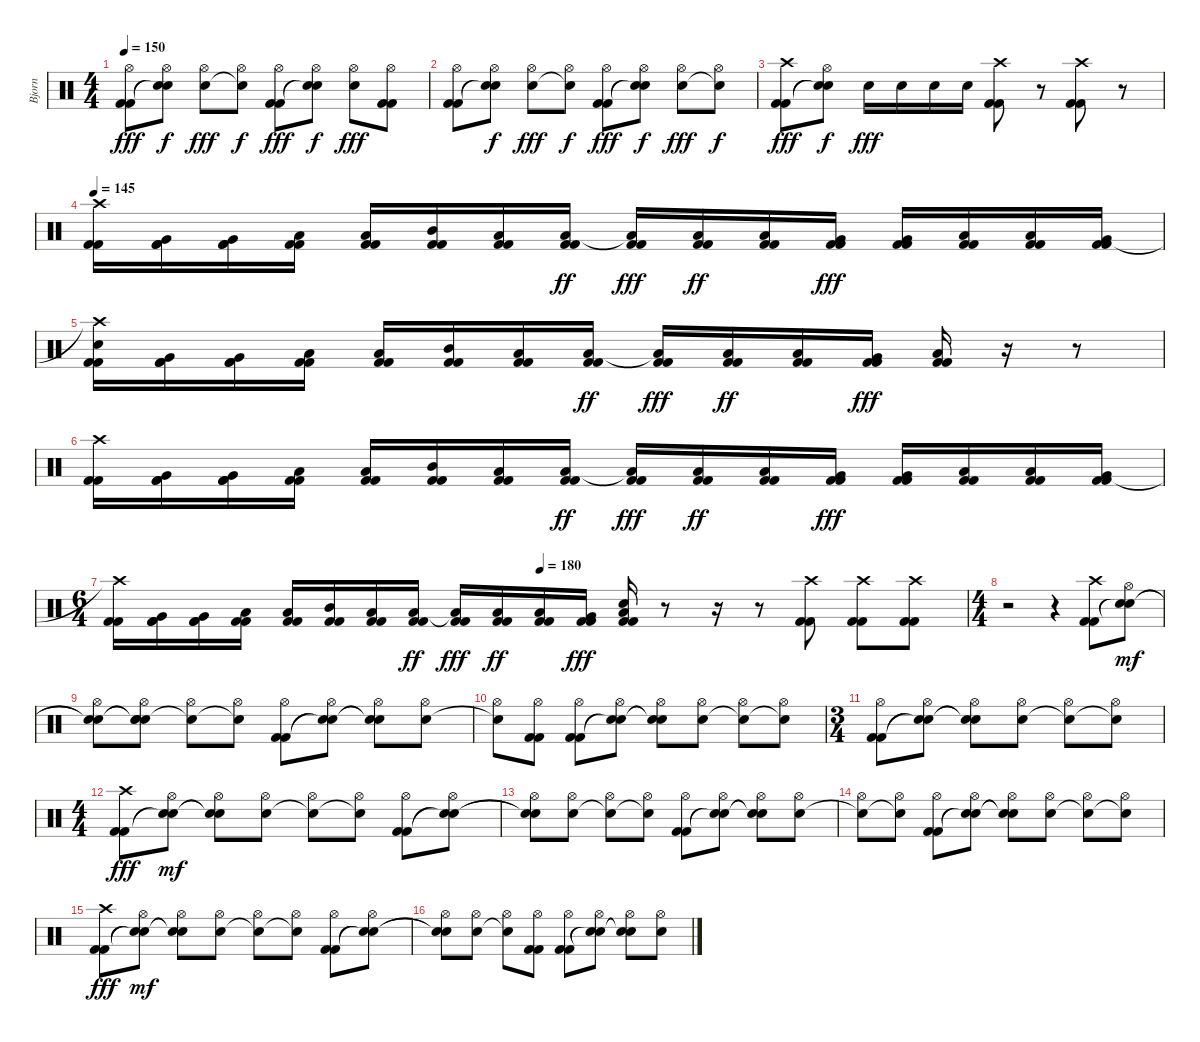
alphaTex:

\track ("Bjorn" "Bjorn") {instrument percussion}
\staff {score}
\articulation defaults
\ts (4 4)
\tempo 150
\clef neutral
\ks c
("Kick (hit) 2" "Kick (hit) 2" "Hi-Hat (open)").8{dy fff} ("Snare (hit)"{t} "Snare (hit)"{t} "Hi-Hat (open)").8{dy f} ("Snare (hit) 2" "Hi-Hat (open)").8{dy fff} ("Snare (hit)"{t} "Hi-Hat (open)").8{dy f} ("Kick (hit) 2" "Kick (hit) 2" "Hi-Hat (open)").8{dy fff} ("Snare (hit)"{t} "Snare (hit)"{t} "Hi-Hat (open)").8{dy f} ("Snare (hit) 2" "Hi-Hat (open)").8{dy fff} ("Kick (hit) 2" "Kick (hit) 2" "Hi-Hat (open)").8 |
("Kick (hit) 2" "Kick (hit) 2" "Hi-Hat (open)").8 ("Snare (hit)"{t} "Snare (hit)"{t} "Hi-Hat (open)").8{dy f} ("Snare (hit) 2" "Hi-Hat (open)").8{dy fff} ("Snare (hit)"{t} "Hi-Hat (open)").8{dy f} ("Kick (hit) 2" "Kick (hit) 2" "Hi-Hat (open)").8{dy fff} ("Snare (hit)"{t} "Snare (hit)"{t} "Hi-Hat (open)").8{dy f} ("Snare (hit) 2" "Hi-Hat (open)").8{dy fff} ("Snare (hit)"{t} "Hi-Hat (open)").8{dy f} |
("Kick (hit) 2" "Kick (hit) 2" "Crash high (hit)").8{dy fff} ("Snare (hit)"{t} "Snare (hit)"{t} "Hi-Hat (open)").8{dy f} "Snare (hit) 2".16{dy fff} "Snare (hit) 2".16 "Snare (hit) 2".16 "Snare (hit) 2".16 ("Kick (hit) 2" "Kick (hit) 2" "Crash high (hit)").8 r.8 ("Kick (hit) 2" "Kick (hit) 2" "Crash high (hit)").8 r.8 |
\tempo 145
("Kick (hit) 2" "Kick (hit) 2" "Crash high (hit)").16 ("Kick (hit) 2" "Kick (hit) 2" "Very Low Tom (hit)").16 ("Kick (hit) 2" "Kick (hit) 2" "Very Low Tom (hit)").16 ("Kick (hit) 2" "Kick (hit) 2" "Low Floor Tom (hit)").16 ("Kick (hit) 2" "Kick (hit) 2" "Low Floor Tom (hit)").16 ("Kick (hit) 2" "Kick (hit) 2" "Mid Tom (hit)").16 ("Kick (hit) 2" "Kick (hit) 2" "Low Tom (hit)").16 ("Kick (hit) 2" "Kick (hit) 2" "Low Floor Tom (hit)").16{dy ff} ("Kick (hit) 2" "Kick (hit) 2" "Low Tom (hit)"{t}).16{dy fff} ("Kick (hit) 2" "Kick (hit) 2" "Low Tom (hit)").16{dy ff} ("Kick (hit) 2" "Kick (hit) 2" "Low Tom (hit)").16 ("Kick (hit) 2" "Kick (hit) 2" "Very Low Tom (hit)").16{dy fff} ("Kick (hit) 2" "Kick (hit) 2" "Very Low Tom (hit)").16 ("Kick (hit) 2" "Kick (hit) 2" "Low Tom (hit)").16 ("Kick (hit) 2" "Kick (hit) 2" "Low Tom (hit)").16 ("Kick (hit) 2" "Kick (hit) 2" "Very Low Tom (hit)").16 |
("Kick (hit) 2" "Kick (hit) 2" "Crash high (hit)"{t} "Snare (hit)").16 ("Kick (hit) 2" "Kick (hit) 2" "Very Low Tom (hit)").16 ("Kick (hit) 2" "Kick (hit) 2" "Very Low Tom (hit)").16 ("Kick (hit) 2" "Kick (hit) 2" "Low Floor Tom (hit)").16 ("Kick (hit) 2" "Kick (hit) 2" "Low Floor Tom (hit)").16 ("Kick (hit) 2" "Kick (hit) 2" "Mid Tom (hit)").16 ("Kick (hit) 2" "Kick (hit) 2" "Low Tom (hit)").16 ("Kick (hit) 2" "Kick (hit) 2" "Low Floor Tom (hit)").16{dy ff} ("Kick (hit) 2" "Kick (hit) 2" "Low Tom (hit)"{t}).16{dy fff} ("Kick (hit) 2" "Kick (hit) 2" "Low Tom (hit)").16{dy ff} ("Kick (hit) 2" "Kick (hit) 2" "Low Tom (hit)").16 ("Kick (hit) 2" "Kick (hit) 2" "Very Low Tom (hit)").16{dy fff} ("Kick (hit) 2" "Kick (hit) 2" "Low Floor Tom (hit)").16 r.16 r.8 |
("Kick (hit) 2" "Kick (hit) 2" "Crash high (hit)").16 ("Kick (hit) 2" "Kick (hit) 2" "Very Low Tom (hit)").16 ("Kick (hit) 2" "Kick (hit) 2" "Very Low Tom (hit)").16 ("Kick (hit) 2" "Kick (hit) 2" "Low Floor Tom (hit)").16 ("Kick (hit) 2" "Kick (hit) 2" "Low Floor Tom (hit)").16 ("Kick (hit) 2" "Kick (hit) 2" "Mid Tom (hit)").16 ("Kick (hit) 2" "Kick (hit) 2" "Low Tom (hit)").16 ("Kick (hit) 2" "Kick (hit) 2" "Low Floor Tom (hit)").16{dy ff} ("Kick (hit) 2" "Kick (hit) 2" "Low Tom (hit)"{t}).16{dy fff} ("Kick (hit) 2" "Kick (hit) 2" "Low Tom (hit)").16{dy ff} ("Kick (hit) 2" "Kick (hit) 2" "Low Tom (hit)").16 ("Kick (hit) 2" "Kick (hit) 2" "Very Low Tom (hit)").16{dy fff} ("Kick (hit) 2" "Kick (hit) 2" "Very Low Tom (hit)").16 ("Kick (hit) 2" "Kick (hit) 2" "Low Tom (hit)").16 ("Kick (hit) 2" "Kick (hit) 2" "Low Tom (hit)").16 ("Kick (hit) 2" "Kick (hit) 2" "Very Low Tom (hit)").16 |
\ts (6 4)
\tempo (180 0.5)
("Kick (hit) 2" "Kick (hit) 2" "Crash high (hit)"{t}).16 ("Kick (hit) 2" "Kick (hit) 2" "Very Low Tom (hit)").16 ("Kick (hit) 2" "Kick (hit) 2" "Very Low Tom (hit)").16 ("Kick (hit) 2" "Kick (hit) 2" "Low Floor Tom (hit)").16 ("Kick (hit) 2" "Kick (hit) 2" "Low Floor Tom (hit)").16 ("Kick (hit) 2" "Kick (hit) 2" "Mid Tom (hit)").16 ("Kick (hit) 2" "Kick (hit) 2" "Low Tom (hit)").16 ("Kick (hit) 2" "Kick (hit) 2" "Low Floor Tom (hit)").16{dy ff} ("Kick (hit) 2" "Kick (hit) 2" "Low Tom (hit)"{t}).16{dy fff} ("Kick (hit) 2" "Kick (hit) 2" "Low Tom (hit)").16{dy ff} ("Kick (hit) 2" "Kick (hit) 2" "Low Tom (hit)").16 ("Kick (hit) 2" "Kick (hit) 2" "Very Low Tom (hit)").16{dy fff} ("Kick (hit) 2" "Kick (hit) 2" "Snare (hit) 2" "Low Floor Tom (hit)").16 r.8 r.16 r.8 ("Kick (hit) 2" "Kick (hit) 2" "Crash high (hit)").8 ("Kick (hit) 2" "Kick (hit) 2" "Crash high (hit)").8 ("Kick (hit) 2" "Kick (hit) 2" "Crash high (hit)").8 |
\ts (4 4)
r.2 r.4 ("Kick (hit) 2" "Kick (hit) 2" "Crash high (hit)").8 ("Snare (hit)"{t} "Snare (hit)"{t} "Hi-Hat (open)").8{dy mf} |
("Snare (hit)"{t} "Snare (hit)"{t} "Hi-Hat (open)").8 ("Snare (hit)"{t} "Snare (hit)"{t} "Snare (hit) 2" "Hi-Hat (open)").8 ("Snare (hit)"{t} "Hi-Hat (open)").8 ("Snare (hit)"{t} "Hi-Hat (open)").8 ("Kick (hit) 2" "Kick (hit) 2" "Hi-Hat (open)").8 ("Snare (hit)"{t} "Snare (hit)"{t} "Hi-Hat (open)").8 ("Snare (hit)"{t} "Snare (hit)"{t} "Hi-Hat (open)").8 ("Snare (hit) 2" "Hi-Hat (open)").8 |
("Snare (hit) 2"{t} "Hi-Hat (open)").8 ("Kick (hit) 2" "Kick (hit) 2" "Hi-Hat (open)").8 ("Kick (hit) 2" "Kick (hit) 2" "Hi-Hat (open)").8 ("Snare (hit)"{t} "Snare (hit)"{t} "Hi-Hat (open)").8 ("Snare (hit)"{t} "Snare (hit)"{t} "Hi-Hat (open)").8 ("Snare (hit) 2" "Hi-Hat (open)").8 ("Snare (hit)"{t} "Hi-Hat (open)").8 ("Snare (hit)"{t} "Hi-Hat (open)").8 |
\ts (3 4)
("Kick (hit) 2" "Kick (hit) 2" "Hi-Hat (open)").8 ("Snare (hit)"{t} "Snare (hit)"{t} "Hi-Hat (open)").8 ("Snare (hit)"{t} "Snare (hit)"{t} "Hi-Hat (open)").8 ("Snare (hit) 2" "Hi-Hat (open)").8 ("Snare (hit)"{t} "Hi-Hat (open)").8 ("Snare (hit)"{t} "Hi-Hat (open)").8 |
\ts (4 4)
("Kick (hit) 2" "Kick (hit) 2" "Crash high (hit)").8{dy fff} ("Snare (hit)"{t} "Snare (hit)"{t} "Hi-Hat (open)").8{dy mf} ("Snare (hit)"{t} "Snare (hit)"{t} "Hi-Hat (open)").8 ("Snare (hit) 2" "Hi-Hat (open)").8 ("Snare (hit)"{t} "Hi-Hat (open)").8 ("Snare (hit)"{t} "Hi-Hat (open)").8 ("Kick (hit) 2" "Kick (hit) 2" "Hi-Hat (open)").8 ("Snare (hit)"{t} "Snare (hit)"{t} "Hi-Hat (open)").8 |
("Snare (hit)"{t} "Snare (hit)"{t} "Hi-Hat (open)").8 ("Snare (hit) 2" "Hi-Hat (open)").8 ("Snare (hit)"{t} "Hi-Hat (open)").8 ("Snare (hit)"{t} "Hi-Hat (open)").8 ("Kick (hit) 2" "Kick (hit) 2" "Hi-Hat (open)").8 ("Snare (hit)"{t} "Snare (hit)"{t} "Hi-Hat (open)").8 ("Snare (hit)"{t} "Snare (hit)"{t} "Hi-Hat (open)").8 ("Snare (hit) 2" "Hi-Hat (open)").8 |
("Snare (hit)"{t} "Hi-Hat (open)").8 ("Snare (hit)"{t} "Hi-Hat (open)").8 ("Kick (hit) 2" "Kick (hit) 2" "Hi-Hat (open)").8 ("Snare (hit)"{t} "Snare (hit)"{t} "Hi-Hat (open)").8 ("Snare (hit)"{t} "Snare (hit)"{t} "Hi-Hat (open)").8 ("Snare (hit) 2" "Hi-Hat (open)").8 ("Snare (hit)"{t} "Hi-Hat (open)").8 ("Snare (hit)"{t} "Hi-Hat (open)").8 |
("Kick (hit) 2" "Kick (hit) 2" "Crash high (hit)").8{dy fff} ("Snare (hit)"{t} "Snare (hit)"{t} "Hi-Hat (open)").8{dy mf} ("Snare (hit)"{t} "Snare (hit)"{t} "Hi-Hat (open)").8 ("Snare (hit) 2" "Hi-Hat (open)").8 ("Snare (hit)"{t} "Hi-Hat (open)").8 ("Snare (hit)"{t} "Hi-Hat (open)").8 ("Kick (hit) 2" "Kick (hit) 2" "Hi-Hat (open)").8 ("Snare (hit)"{t} "Snare (hit)"{t} "Hi-Hat (open)").8 |
("Snare (hit)"{t} "Snare (hit)"{t} "Hi-Hat (open)").8 ("Snare (hit) 2" "Hi-Hat (open)").8 ("Snare (hit)"{t} "Hi-Hat (open)").8 ("Kick (hit) 2" "Kick (hit) 2" "Hi-Hat (open)").8 ("Kick (hit) 2" "Kick (hit) 2" "Hi-Hat (open)").8 ("Snare (hit)"{t} "Snare (hit)"{t} "Hi-Hat (open)").8 ("Snare (hit)"{t} "Snare (hit)"{t} "Hi-Hat (open)").8 ("Snare (hit) 2" "Hi-Hat (open)").8
